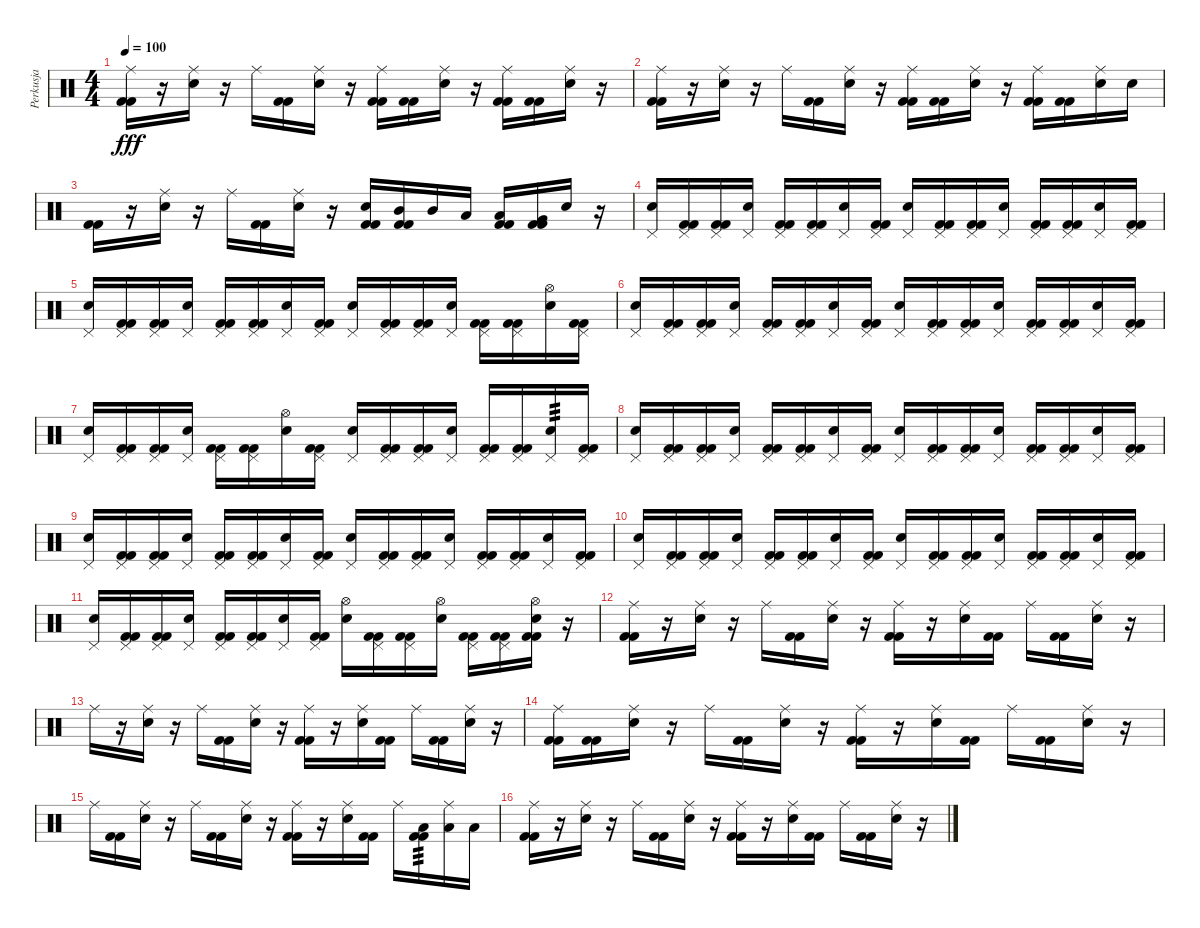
\track ("Perkusja" "Perkusja") {instrument percussion}
\staff {score}
\articulation defaults
\ts (4 4)
\tempo 100
\clef neutral
\ks c
("Ride (middle)" "Kick (hit) 2" "Kick (hit) 2").16{dy fff} r.16 ("Snare (hit) 2" "Ride (middle)").16 r.16 "Ride (middle)".16 ("Kick (hit) 2" "Kick (hit) 2").16 ("Snare (hit) 2" "Ride (middle)").16 r.16 ("Ride (middle)" "Kick (hit) 2" "Kick (hit) 2").16 ("Kick (hit) 2" "Kick (hit) 2").16 ("Snare (hit) 2" "Ride (middle)").16 r.16 ("Ride (middle)" "Kick (hit) 2" "Kick (hit) 2").16 ("Kick (hit) 2" "Kick (hit) 2").16 ("Snare (hit) 2" "Ride (middle)").16 r.16 |
("Ride (middle)" "Kick (hit) 2" "Kick (hit) 2").16 r.16 ("Snare (hit) 2" "Ride (middle)").16 r.16 "Ride (middle)".16 ("Kick (hit) 2" "Kick (hit) 2").16 ("Snare (hit) 2" "Ride (middle)").16 r.16 ("Ride (middle)" "Kick (hit) 2" "Kick (hit) 2").16 ("Kick (hit) 2" "Kick (hit) 2").16 ("Snare (hit) 2" "Ride (middle)").16 r.16 ("Ride (middle)" "Kick (hit) 2" "Kick (hit) 2").16 ("Kick (hit) 2" "Kick (hit) 2").16 ("Snare (hit) 2" "Ride (middle)").16 "Snare (hit) 2".16 |
("Kick (hit) 2" "Kick (hit) 2").16 r.16 ("Snare (hit) 2" "Ride (middle)").16 r.16 "Ride (middle)".16 ("Kick (hit) 2" "Kick (hit) 2").16 ("Snare (hit) 2" "Ride (middle)").16 r.16 ("Snare (hit) 2" "Kick (hit) 2" "Kick (hit) 2").16 ("Mid Tom (hit)" "Kick (hit) 2" "Kick (hit) 2").16 "Mid Tom (hit)".16 "Low Tom (hit)".16 ("Low Tom (hit)" "Kick (hit) 2" "Kick (hit) 2").16 ("Very Low Tom (hit)" "Kick (hit) 2" "Kick (hit) 2").16 "Snare (hit) 2".16 r.16 |
("Snare (hit) 2" "Pedal Hi-Hat (hit)").16 ("Pedal Hi-Hat (hit)" "Kick (hit) 2" "Kick (hit) 2").16 ("Pedal Hi-Hat (hit)" "Kick (hit) 2" "Kick (hit) 2").16 ("Snare (hit) 2" "Pedal Hi-Hat (hit)").16 ("Pedal Hi-Hat (hit)" "Kick (hit) 2" "Kick (hit) 2").16 ("Pedal Hi-Hat (hit)" "Kick (hit) 2" "Kick (hit) 2").16 ("Snare (hit) 2" "Pedal Hi-Hat (hit)").16 ("Pedal Hi-Hat (hit)" "Kick (hit) 2" "Kick (hit) 2").16 ("Snare (hit) 2" "Pedal Hi-Hat (hit)").16 ("Pedal Hi-Hat (hit)" "Kick (hit) 2" "Kick (hit) 2").16 ("Pedal Hi-Hat (hit)" "Kick (hit) 2" "Kick (hit) 2").16 ("Snare (hit) 2" "Pedal Hi-Hat (hit)").16 ("Pedal Hi-Hat (hit)" "Kick (hit) 2" "Kick (hit) 2").16 ("Pedal Hi-Hat (hit)" "Kick (hit) 2" "Kick (hit) 2").16 ("Snare (hit) 2" "Pedal Hi-Hat (hit)").16 ("Pedal Hi-Hat (hit)" "Kick (hit) 2" "Kick (hit) 2").16 |
("Snare (hit) 2" "Pedal Hi-Hat (hit)").16 ("Pedal Hi-Hat (hit)" "Kick (hit) 2" "Kick (hit) 2").16 ("Pedal Hi-Hat (hit)" "Kick (hit) 2" "Kick (hit) 2").16 ("Snare (hit) 2" "Pedal Hi-Hat (hit)").16 ("Pedal Hi-Hat (hit)" "Kick (hit) 2" "Kick (hit) 2").16 ("Pedal Hi-Hat (hit)" "Kick (hit) 2" "Kick (hit) 2").16 ("Snare (hit) 2" "Pedal Hi-Hat (hit)").16 ("Pedal Hi-Hat (hit)" "Kick (hit) 2" "Kick (hit) 2").16 ("Snare (hit) 2" "Pedal Hi-Hat (hit)").16 ("Pedal Hi-Hat (hit)" "Kick (hit) 2" "Kick (hit) 2").16 ("Pedal Hi-Hat (hit)" "Kick (hit) 2" "Kick (hit) 2").16 ("Snare (hit) 2" "Pedal Hi-Hat (hit)").16 ("Pedal Hi-Hat (hit)" "Kick (hit) 2" "Kick (hit) 2").16 ("Pedal Hi-Hat (hit)" "Kick (hit) 2" "Kick (hit) 2").16 ("Snare (hit) 2" "Hi-Hat (open)").16 ("Pedal Hi-Hat (hit)" "Kick (hit) 2" "Kick (hit) 2").16 |
("Snare (hit) 2" "Pedal Hi-Hat (hit)").16 ("Pedal Hi-Hat (hit)" "Kick (hit) 2" "Kick (hit) 2").16 ("Pedal Hi-Hat (hit)" "Kick (hit) 2" "Kick (hit) 2").16 ("Snare (hit) 2" "Pedal Hi-Hat (hit)").16 ("Pedal Hi-Hat (hit)" "Kick (hit) 2" "Kick (hit) 2").16 ("Pedal Hi-Hat (hit)" "Kick (hit) 2" "Kick (hit) 2").16 ("Snare (hit) 2" "Pedal Hi-Hat (hit)").16 ("Pedal Hi-Hat (hit)" "Kick (hit) 2" "Kick (hit) 2").16 ("Snare (hit) 2" "Pedal Hi-Hat (hit)").16 ("Pedal Hi-Hat (hit)" "Kick (hit) 2" "Kick (hit) 2").16 ("Pedal Hi-Hat (hit)" "Kick (hit) 2" "Kick (hit) 2").16 ("Snare (hit) 2" "Pedal Hi-Hat (hit)").16 ("Pedal Hi-Hat (hit)" "Kick (hit) 2" "Kick (hit) 2").16 ("Pedal Hi-Hat (hit)" "Kick (hit) 2" "Kick (hit) 2").16 ("Snare (hit) 2" "Pedal Hi-Hat (hit)").16 ("Pedal Hi-Hat (hit)" "Kick (hit) 2" "Kick (hit) 2").16 |
("Snare (hit) 2" "Pedal Hi-Hat (hit)").16 ("Pedal Hi-Hat (hit)" "Kick (hit) 2" "Kick (hit) 2").16 ("Pedal Hi-Hat (hit)" "Kick (hit) 2" "Kick (hit) 2").16 ("Snare (hit) 2" "Pedal Hi-Hat (hit)").16 ("Pedal Hi-Hat (hit)" "Kick (hit) 2" "Kick (hit) 2").16 ("Pedal Hi-Hat (hit)" "Kick (hit) 2" "Kick (hit) 2").16 ("Snare (hit) 2" "Hi-Hat (open)").16 ("Pedal Hi-Hat (hit)" "Kick (hit) 2" "Kick (hit) 2").16 ("Snare (hit) 2" "Pedal Hi-Hat (hit)").16 ("Pedal Hi-Hat (hit)" "Kick (hit) 2" "Kick (hit) 2").16 ("Pedal Hi-Hat (hit)" "Kick (hit) 2" "Kick (hit) 2").16 ("Snare (hit) 2" "Pedal Hi-Hat (hit)").16 ("Pedal Hi-Hat (hit)" "Kick (hit) 2" "Kick (hit) 2").16 ("Pedal Hi-Hat (hit)" "Kick (hit) 2" "Kick (hit) 2").16 ("Snare (hit) 2" "Pedal Hi-Hat (hit)").16{tp 3} ("Pedal Hi-Hat (hit)" "Kick (hit) 2" "Kick (hit) 2").16 |
("Snare (hit) 2" "Pedal Hi-Hat (hit)").16 ("Pedal Hi-Hat (hit)" "Kick (hit) 2" "Kick (hit) 2").16 ("Pedal Hi-Hat (hit)" "Kick (hit) 2" "Kick (hit) 2").16 ("Snare (hit) 2" "Pedal Hi-Hat (hit)").16 ("Pedal Hi-Hat (hit)" "Kick (hit) 2" "Kick (hit) 2").16 ("Pedal Hi-Hat (hit)" "Kick (hit) 2" "Kick (hit) 2").16 ("Snare (hit) 2" "Pedal Hi-Hat (hit)").16 ("Pedal Hi-Hat (hit)" "Kick (hit) 2" "Kick (hit) 2").16 ("Snare (hit) 2" "Pedal Hi-Hat (hit)").16 ("Pedal Hi-Hat (hit)" "Kick (hit) 2" "Kick (hit) 2").16 ("Pedal Hi-Hat (hit)" "Kick (hit) 2" "Kick (hit) 2").16 ("Snare (hit) 2" "Pedal Hi-Hat (hit)").16 ("Pedal Hi-Hat (hit)" "Kick (hit) 2" "Kick (hit) 2").16 ("Pedal Hi-Hat (hit)" "Kick (hit) 2" "Kick (hit) 2").16 ("Snare (hit) 2" "Pedal Hi-Hat (hit)").16 ("Pedal Hi-Hat (hit)" "Kick (hit) 2" "Kick (hit) 2").16 |
("Snare (hit) 2" "Pedal Hi-Hat (hit)").16 ("Pedal Hi-Hat (hit)" "Kick (hit) 2" "Kick (hit) 2").16 ("Pedal Hi-Hat (hit)" "Kick (hit) 2" "Kick (hit) 2").16 ("Snare (hit) 2" "Pedal Hi-Hat (hit)").16 ("Pedal Hi-Hat (hit)" "Kick (hit) 2" "Kick (hit) 2").16 ("Pedal Hi-Hat (hit)" "Kick (hit) 2" "Kick (hit) 2").16 ("Snare (hit) 2" "Pedal Hi-Hat (hit)").16 ("Pedal Hi-Hat (hit)" "Kick (hit) 2" "Kick (hit) 2").16 ("Snare (hit) 2" "Pedal Hi-Hat (hit)").16 ("Pedal Hi-Hat (hit)" "Kick (hit) 2" "Kick (hit) 2").16 ("Pedal Hi-Hat (hit)" "Kick (hit) 2" "Kick (hit) 2").16 ("Snare (hit) 2" "Pedal Hi-Hat (hit)").16 ("Pedal Hi-Hat (hit)" "Kick (hit) 2" "Kick (hit) 2").16 ("Pedal Hi-Hat (hit)" "Kick (hit) 2" "Kick (hit) 2").16 ("Snare (hit) 2" "Pedal Hi-Hat (hit)").16 ("Pedal Hi-Hat (hit)" "Kick (hit) 2" "Kick (hit) 2").16 |
("Snare (hit) 2" "Pedal Hi-Hat (hit)").16 ("Pedal Hi-Hat (hit)" "Kick (hit) 2" "Kick (hit) 2").16 ("Pedal Hi-Hat (hit)" "Kick (hit) 2" "Kick (hit) 2").16 ("Snare (hit) 2" "Pedal Hi-Hat (hit)").16 ("Pedal Hi-Hat (hit)" "Kick (hit) 2" "Kick (hit) 2").16 ("Pedal Hi-Hat (hit)" "Kick (hit) 2" "Kick (hit) 2").16 ("Snare (hit) 2" "Pedal Hi-Hat (hit)").16 ("Pedal Hi-Hat (hit)" "Kick (hit) 2" "Kick (hit) 2").16 ("Snare (hit) 2" "Pedal Hi-Hat (hit)").16 ("Pedal Hi-Hat (hit)" "Kick (hit) 2" "Kick (hit) 2").16 ("Pedal Hi-Hat (hit)" "Kick (hit) 2" "Kick (hit) 2").16 ("Snare (hit) 2" "Pedal Hi-Hat (hit)").16 ("Pedal Hi-Hat (hit)" "Kick (hit) 2" "Kick (hit) 2").16 ("Pedal Hi-Hat (hit)" "Kick (hit) 2" "Kick (hit) 2").16 ("Snare (hit) 2" "Pedal Hi-Hat (hit)").16 ("Pedal Hi-Hat (hit)" "Kick (hit) 2" "Kick (hit) 2").16 |
("Snare (hit) 2" "Pedal Hi-Hat (hit)").16 ("Pedal Hi-Hat (hit)" "Kick (hit) 2" "Kick (hit) 2").16 ("Pedal Hi-Hat (hit)" "Kick (hit) 2" "Kick (hit) 2").16 ("Snare (hit) 2" "Pedal Hi-Hat (hit)").16 ("Pedal Hi-Hat (hit)" "Kick (hit) 2" "Kick (hit) 2").16 ("Pedal Hi-Hat (hit)" "Kick (hit) 2" "Kick (hit) 2").16 ("Snare (hit) 2" "Pedal Hi-Hat (hit)").16 ("Pedal Hi-Hat (hit)" "Kick (hit) 2" "Kick (hit) 2").16 ("Snare (hit) 2" "Hi-Hat (open)").16 ("Pedal Hi-Hat (hit)" "Kick (hit) 2" "Kick (hit) 2").16 ("Pedal Hi-Hat (hit)" "Kick (hit) 2" "Kick (hit) 2").16 ("Snare (hit) 2" "Hi-Hat (open)").16 ("Pedal Hi-Hat (hit)" "Kick (hit) 2" "Kick (hit) 2").16 ("Pedal Hi-Hat (hit)" "Kick (hit) 2" "Kick (hit) 2").16 ("Snare (hit) 2" "Hi-Hat (open)" "Kick (hit) 2" "Kick (hit) 2").16 r.16 |
("Ride (middle)" "Kick (hit) 2" "Kick (hit) 2").16 r.16 ("Snare (hit) 2" "Ride (middle)").16 r.16 "Ride (middle)".16 ("Kick (hit) 2" "Kick (hit) 2").16 ("Snare (hit) 2" "Ride (middle)").16 r.16 ("Ride (middle)" "Kick (hit) 2" "Kick (hit) 2").16 r.16 ("Snare (hit) 2" "Ride (middle)").16 ("Kick (hit) 2" "Kick (hit) 2").16 "Ride (middle)".16 ("Kick (hit) 2" "Kick (hit) 2").16 ("Snare (hit) 2" "Ride (middle)").16 r.16 |
"Ride (middle)".16 r.16 ("Snare (hit) 2" "Ride (middle)").16 r.16 "Ride (middle)".16 ("Kick (hit) 2" "Kick (hit) 2").16 ("Snare (hit) 2" "Ride (middle)").16 r.16 ("Ride (middle)" "Kick (hit) 2" "Kick (hit) 2").16 r.16 ("Snare (hit) 2" "Ride (middle)").16 ("Kick (hit) 2" "Kick (hit) 2").16 "Ride (middle)".16 ("Kick (hit) 2" "Kick (hit) 2").16 ("Snare (hit) 2" "Ride (middle)").16 r.16 |
("Ride (middle)" "Kick (hit) 2" "Kick (hit) 2").16 ("Kick (hit) 2" "Kick (hit) 2").16 ("Snare (hit) 2" "Ride (middle)").16 r.16 "Ride (middle)".16 ("Kick (hit) 2" "Kick (hit) 2").16 ("Snare (hit) 2" "Ride (middle)").16 r.16 ("Ride (middle)" "Kick (hit) 2" "Kick (hit) 2").16 r.16 ("Snare (hit) 2" "Ride (middle)").16 ("Kick (hit) 2" "Kick (hit) 2").16 "Ride (middle)".16 ("Kick (hit) 2" "Kick (hit) 2").16 ("Snare (hit) 2" "Ride (middle)").16 r.16 |
"Ride (middle)".16 ("Kick (hit) 2" "Kick (hit) 2").16 ("Snare (hit) 2" "Ride (middle)").16 r.16 "Ride (middle)".16 ("Kick (hit) 2" "Kick (hit) 2").16 ("Snare (hit) 2" "Ride (middle)").16 r.16 ("Ride (middle)" "Kick (hit) 2" "Kick (hit) 2").16 r.16 ("Snare (hit) 2" "Ride (middle)").16 ("Kick (hit) 2" "Kick (hit) 2").16 "Ride (middle)".16 ("Low Tom (hit)" "Kick (hit) 2" "Kick (hit) 2").16{tp 3} ("Low Tom (hit)" "Ride (middle)").16 "Low Tom (hit)".16 |
("Ride (middle)" "Kick (hit) 2" "Kick (hit) 2").16 r.16 ("Snare (hit) 2" "Ride (middle)").16 r.16 "Ride (middle)".16 ("Kick (hit) 2" "Kick (hit) 2").16 ("Snare (hit) 2" "Ride (middle)").16 r.16 ("Ride (middle)" "Kick (hit) 2" "Kick (hit) 2").16 r.16 ("Snare (hit) 2" "Ride (middle)").16 ("Kick (hit) 2" "Kick (hit) 2").16 "Ride (middle)".16 ("Kick (hit) 2" "Kick (hit) 2").16 ("Snare (hit) 2" "Ride (middle)").16 r.16
